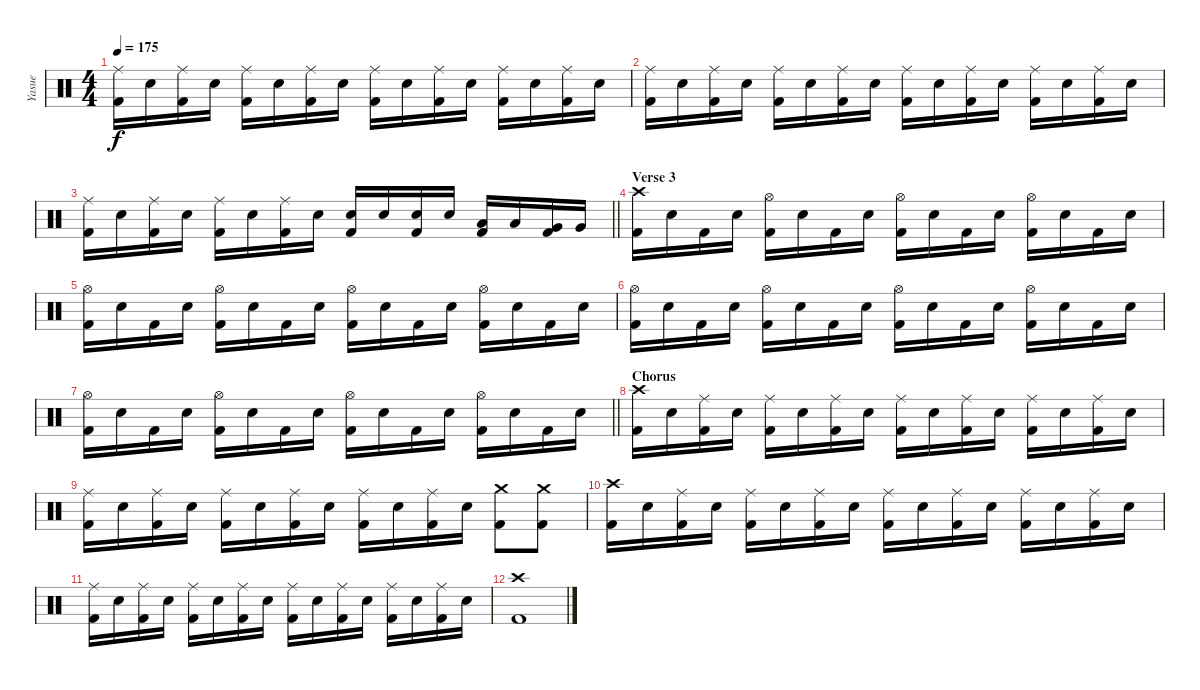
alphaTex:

\track ("Yasue" "Yasue") {instrument percussion}
\staff {score}
\articulation defaults
\ts (4 4)
\tempo 175
\clef neutral
\ks c
("Ride (middle)" "Kick (hit) 2").16{dy f} "Electric Snare (hit)".16 ("Ride (middle)" "Kick (hit) 2").16 "Electric Snare (hit)".16 ("Ride (middle)" "Kick (hit) 2").16 "Electric Snare (hit)".16 ("Ride (middle)" "Kick (hit) 2").16 "Electric Snare (hit)".16 ("Ride (middle)" "Kick (hit) 2").16 "Electric Snare (hit)".16 ("Ride (middle)" "Kick (hit) 2").16 "Electric Snare (hit)".16 ("Ride (middle)" "Kick (hit) 2").16 "Electric Snare (hit)".16 ("Ride (middle)" "Kick (hit) 2").16 "Electric Snare (hit)".16 |
("Ride (middle)" "Kick (hit) 2").16 "Electric Snare (hit)".16 ("Ride (middle)" "Kick (hit) 2").16 "Electric Snare (hit)".16 ("Ride (middle)" "Kick (hit) 2").16 "Electric Snare (hit)".16 ("Ride (middle)" "Kick (hit) 2").16 "Electric Snare (hit)".16 ("Ride (middle)" "Kick (hit) 2").16 "Electric Snare (hit)".16 ("Ride (middle)" "Kick (hit) 2").16 "Electric Snare (hit)".16 ("Ride (middle)" "Kick (hit) 2").16 "Electric Snare (hit)".16 ("Ride (middle)" "Kick (hit) 2").16 "Electric Snare (hit)".16 |
\barLineRight lightlight
("Ride (middle)" "Kick (hit) 2").16 "Electric Snare (hit)".16 ("Ride (middle)" "Kick (hit) 2").16 "Electric Snare (hit)".16 ("Ride (middle)" "Kick (hit) 2").16 "Electric Snare (hit)".16 ("Ride (middle)" "Kick (hit) 2").16 "Electric Snare (hit)".16 ("Electric Snare (hit)" "Kick (hit) 2").16 "Electric Snare (hit)".16 ("Electric Snare (hit)" "Kick (hit) 2").16 "Electric Snare (hit)".16 ("Low Tom (hit)" "Kick (hit) 2").16 "Low Tom (hit)".16 ("Very Low Tom (hit)" "Kick (hit) 2").16 "Very Low Tom (hit)".16 |
\section ("" "Verse 3")
("Crash high (hit)" "Kick (hit) 2").16 "Electric Snare (hit)".16 "Kick (hit) 2".16 "Electric Snare (hit)".16 ("Hi-Hat (open)" "Kick (hit) 2").16 "Electric Snare (hit)".16 "Kick (hit) 2".16 "Electric Snare (hit)".16 ("Hi-Hat (open)" "Kick (hit) 2").16 "Electric Snare (hit)".16 "Kick (hit) 2".16 "Electric Snare (hit)".16 ("Hi-Hat (open)" "Kick (hit) 2").16 "Electric Snare (hit)".16 "Kick (hit) 2".16 "Electric Snare (hit)".16 |
("Hi-Hat (open)" "Kick (hit) 2").16 "Electric Snare (hit)".16 "Kick (hit) 2".16 "Electric Snare (hit)".16 ("Hi-Hat (open)" "Kick (hit) 2").16 "Electric Snare (hit)".16 "Kick (hit) 2".16 "Electric Snare (hit)".16 ("Hi-Hat (open)" "Kick (hit) 2").16 "Electric Snare (hit)".16 "Kick (hit) 2".16 "Electric Snare (hit)".16 ("Hi-Hat (open)" "Kick (hit) 2").16 "Electric Snare (hit)".16 "Kick (hit) 2".16 "Electric Snare (hit)".16 |
("Hi-Hat (open)" "Kick (hit) 2").16 "Electric Snare (hit)".16 "Kick (hit) 2".16 "Electric Snare (hit)".16 ("Hi-Hat (open)" "Kick (hit) 2").16 "Electric Snare (hit)".16 "Kick (hit) 2".16 "Electric Snare (hit)".16 ("Hi-Hat (open)" "Kick (hit) 2").16 "Electric Snare (hit)".16 "Kick (hit) 2".16 "Electric Snare (hit)".16 ("Hi-Hat (open)" "Kick (hit) 2").16 "Electric Snare (hit)".16 "Kick (hit) 2".16 "Electric Snare (hit)".16 |
\barLineRight lightlight
("Hi-Hat (open)" "Kick (hit) 2").16 "Electric Snare (hit)".16 "Kick (hit) 2".16 "Electric Snare (hit)".16 ("Hi-Hat (open)" "Kick (hit) 2").16 "Electric Snare (hit)".16 "Kick (hit) 2".16 "Electric Snare (hit)".16 ("Hi-Hat (open)" "Kick (hit) 2").16 "Electric Snare (hit)".16 "Kick (hit) 2".16 "Electric Snare (hit)".16 ("Hi-Hat (open)" "Kick (hit) 2").16 "Electric Snare (hit)".16 "Kick (hit) 2".16 "Electric Snare (hit)".16 |
\section ("" "Chorus")
("Crash high (hit)" "Kick (hit) 2").16 "Electric Snare (hit)".16 ("Ride (middle)" "Kick (hit) 2").16 "Electric Snare (hit)".16 ("Ride (middle)" "Kick (hit) 2").16 "Electric Snare (hit)".16 ("Ride (middle)" "Kick (hit) 2").16 "Electric Snare (hit)".16 ("Ride (middle)" "Kick (hit) 2").16 "Electric Snare (hit)".16 ("Ride (middle)" "Kick (hit) 2").16 "Electric Snare (hit)".16 ("Ride (middle)" "Kick (hit) 2").16 "Electric Snare (hit)".16 ("Ride (middle)" "Kick (hit) 2").16 "Electric Snare (hit)".16 |
("Ride (middle)" "Kick (hit) 2").16 "Electric Snare (hit)".16 ("Ride (middle)" "Kick (hit) 2").16 "Electric Snare (hit)".16 ("Ride (middle)" "Kick (hit) 2").16 "Electric Snare (hit)".16 ("Ride (middle)" "Kick (hit) 2").16 "Electric Snare (hit)".16 ("Ride (middle)" "Kick (hit) 2").16 "Electric Snare (hit)".16 ("Ride (middle)" "Kick (hit) 2").16 "Electric Snare (hit)".16 ("Crash medium (hit)" "Kick (hit) 2").8 ("Crash medium (hit)" "Kick (hit) 2").8 |
("Crash high (hit)" "Kick (hit) 2").16 "Electric Snare (hit)".16 ("Ride (middle)" "Kick (hit) 2").16 "Electric Snare (hit)".16 ("Ride (middle)" "Kick (hit) 2").16 "Electric Snare (hit)".16 ("Ride (middle)" "Kick (hit) 2").16 "Electric Snare (hit)".16 ("Ride (middle)" "Kick (hit) 2").16 "Electric Snare (hit)".16 ("Ride (middle)" "Kick (hit) 2").16 "Electric Snare (hit)".16 ("Ride (middle)" "Kick (hit) 2").16 "Electric Snare (hit)".16 ("Ride (middle)" "Kick (hit) 2").16 "Electric Snare (hit)".16 |
("Ride (middle)" "Kick (hit) 2").16 "Electric Snare (hit)".16 ("Ride (middle)" "Kick (hit) 2").16 "Electric Snare (hit)".16 ("Ride (middle)" "Kick (hit) 2").16 "Electric Snare (hit)".16 ("Ride (middle)" "Kick (hit) 2").16 "Electric Snare (hit)".16 ("Ride (middle)" "Kick (hit) 2").16 "Electric Snare (hit)".16 ("Ride (middle)" "Kick (hit) 2").16 "Electric Snare (hit)".16 ("Ride (middle)" "Kick (hit) 2").16 "Electric Snare (hit)".16 ("Ride (middle)" "Kick (hit) 2").16 "Electric Snare (hit)".16 |
("Crash high (hit)" "Kick (hit) 2").1
